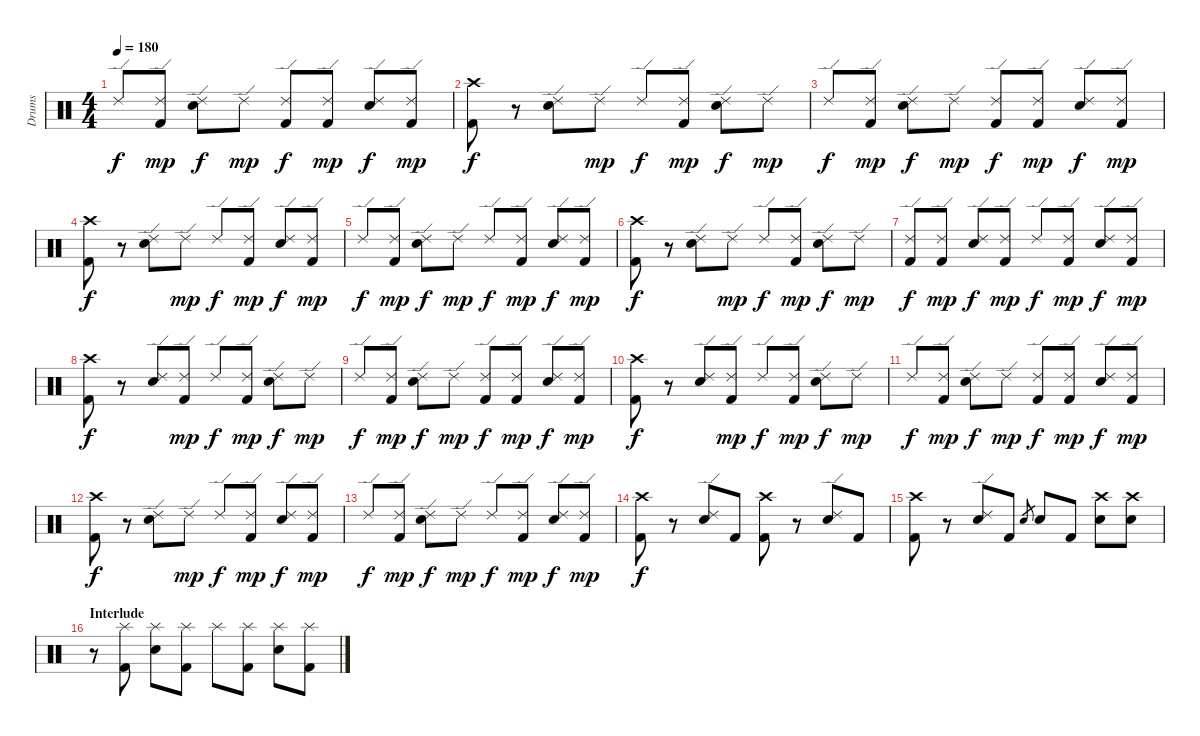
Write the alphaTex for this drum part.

\track ("Drums" "Drums") {instrument percussion}
\staff {score}
\articulation defaults
\ts (4 4)
\tempo 180
\clef neutral
\ks c "Ride (edge) 2".8{dy f}
("Ride (edge) 2" "Kick (hit) 2").8{dy mp} ("Ride (edge) 2" "Electric Snare (hit)").8{dy f} "Ride (edge) 2".8{dy mp} ("Ride (edge) 2" "Kick (hit) 2").8{dy f} ("Ride (edge) 2" "Kick (hit) 2").8{dy mp} ("Ride (edge) 2" "Electric Snare (hit)").8{dy f} ("Ride (edge) 2" "Kick (hit) 2").8{dy mp} |
("Crash high (hit)" "Kick (hit) 2").8{dy f} r.8 ("Ride (edge) 2" "Electric Snare (hit)").8 "Ride (edge) 2".8{dy mp} "Ride (edge) 2".8{dy f} ("Ride (edge) 2" "Kick (hit) 2").8{dy mp} ("Ride (edge) 2" "Electric Snare (hit)").8{dy f} "Ride (edge) 2".8{dy mp} |
"Ride (edge) 2".8{dy f} ("Ride (edge) 2" "Kick (hit) 2").8{dy mp} ("Ride (edge) 2" "Electric Snare (hit)").8{dy f} "Ride (edge) 2".8{dy mp} ("Ride (edge) 2" "Kick (hit) 2").8{dy f} ("Ride (edge) 2" "Kick (hit) 2").8{dy mp} ("Ride (edge) 2" "Electric Snare (hit)").8{dy f} ("Ride (edge) 2" "Kick (hit) 2").8{dy mp} |
("Crash high (hit)" "Kick (hit) 2").8{dy f} r.8 ("Ride (edge) 2" "Electric Snare (hit)").8 "Ride (edge) 2".8{dy mp} "Ride (edge) 2".8{dy f} ("Ride (edge) 2" "Kick (hit) 2").8{dy mp} ("Ride (edge) 2" "Electric Snare (hit)").8{dy f} ("Ride (edge) 2" "Kick (hit) 2").8{dy mp} |
"Ride (edge) 2".8{dy f} ("Ride (edge) 2" "Kick (hit) 2").8{dy mp} ("Ride (edge) 2" "Electric Snare (hit)").8{dy f} "Ride (edge) 2".8{dy mp} "Ride (edge) 2".8{dy f} ("Ride (edge) 2" "Kick (hit) 2").8{dy mp} ("Ride (edge) 2" "Electric Snare (hit)").8{dy f} ("Ride (edge) 2" "Kick (hit) 2").8{dy mp} |
("Crash high (hit)" "Kick (hit) 2").8{dy f} r.8 ("Ride (edge) 2" "Electric Snare (hit)").8 "Ride (edge) 2".8{dy mp} "Ride (edge) 2".8{dy f} ("Ride (edge) 2" "Kick (hit) 2").8{dy mp} ("Ride (edge) 2" "Electric Snare (hit)").8{dy f} "Ride (edge) 2".8{dy mp} |
("Ride (edge) 2" "Kick (hit) 2").8{dy f} ("Ride (edge) 2" "Kick (hit) 2").8{dy mp} ("Ride (edge) 2" "Electric Snare (hit)").8{dy f} ("Ride (edge) 2" "Kick (hit) 2").8{dy mp} "Ride (edge) 2".8{dy f} ("Ride (edge) 2" "Kick (hit) 2").8{dy mp} ("Ride (edge) 2" "Electric Snare (hit)").8{dy f} ("Ride (edge) 2" "Kick (hit) 2").8{dy mp} |
("Crash high (hit)" "Kick (hit) 2").8{dy f} r.8 ("Ride (edge) 2" "Electric Snare (hit)").8 ("Ride (edge) 2" "Kick (hit) 2").8{dy mp} "Ride (edge) 2".8{dy f} ("Ride (edge) 2" "Kick (hit) 2").8{dy mp} ("Ride (edge) 2" "Electric Snare (hit)").8{dy f} "Ride (edge) 2".8{dy mp} |
"Ride (edge) 2".8{dy f} ("Ride (edge) 2" "Kick (hit) 2").8{dy mp} ("Ride (edge) 2" "Electric Snare (hit)").8{dy f} "Ride (edge) 2".8{dy mp} ("Ride (edge) 2" "Kick (hit) 2").8{dy f} ("Ride (edge) 2" "Kick (hit) 2").8{dy mp} ("Ride (edge) 2" "Electric Snare (hit)").8{dy f} ("Ride (edge) 2" "Kick (hit) 2").8{dy mp} |
("Crash high (hit)" "Kick (hit) 2").8{dy f} r.8 ("Ride (edge) 2" "Electric Snare (hit)").8 ("Ride (edge) 2" "Kick (hit) 2").8{dy mp} "Ride (edge) 2".8{dy f} ("Ride (edge) 2" "Kick (hit) 2").8{dy mp} ("Ride (edge) 2" "Electric Snare (hit)").8{dy f} "Ride (edge) 2".8{dy mp} |
"Ride (edge) 2".8{dy f} ("Ride (edge) 2" "Kick (hit) 2").8{dy mp} ("Ride (edge) 2" "Electric Snare (hit)").8{dy f} "Ride (edge) 2".8{dy mp} ("Ride (edge) 2" "Kick (hit) 2").8{dy f} ("Ride (edge) 2" "Kick (hit) 2").8{dy mp} ("Ride (edge) 2" "Electric Snare (hit)").8{dy f} ("Ride (edge) 2" "Kick (hit) 2").8{dy mp} |
("Crash high (hit)" "Kick (hit) 2").8{dy f} r.8 ("Ride (edge) 2" "Electric Snare (hit)").8 "Ride (edge) 2".8{dy mp} "Ride (edge) 2".8{dy f} ("Ride (edge) 2" "Kick (hit) 2").8{dy mp} ("Ride (edge) 2" "Electric Snare (hit)").8{dy f} ("Ride (edge) 2" "Kick (hit) 2").8{dy mp} |
"Ride (edge) 2".8{dy f} ("Ride (edge) 2" "Kick (hit) 2").8{dy mp} ("Ride (edge) 2" "Electric Snare (hit)").8{dy f} "Ride (edge) 2".8{dy mp} "Ride (edge) 2".8{dy f} ("Ride (edge) 2" "Kick (hit) 2").8{dy mp} ("Ride (edge) 2" "Electric Snare (hit)").8{dy f} ("Ride (edge) 2" "Kick (hit) 2").8{dy mp} |
("Crash high (hit)" "Kick (hit) 2").8{dy f} r.8 ("Ride (edge) 2" "Electric Snare (hit)").8 "Kick (hit) 2".8 ("Crash high (hit)" "Kick (hit) 2").8 r.8 ("Ride (edge) 2" "Electric Snare (hit)").8 "Kick (hit) 2".8 |
("Crash high (hit)" "Kick (hit) 2").8 r.8 ("Ride (edge) 2" "Electric Snare (hit)").8 "Kick (hit) 2".8 "Electric Snare (hit)".8{gr} "Electric Snare (hit)".8 "Kick (hit) 2".8 ("Crash high (hit)" "Electric Snare (hit)").8 ("Crash high (hit)" "Electric Snare (hit)").8 |
\section ("" "Interlude")
r.8 ("Splash (hit)" "Kick (hit) 2").8 ("Splash (hit)" "Electric Snare (hit)").8 ("Splash (hit)" "Kick (hit) 2").8 "Splash (hit)".8 ("Splash (hit)" "Kick (hit) 2").8 ("Splash (hit)" "Electric Snare (hit)").8 ("Splash (hit)" "Kick (hit) 2").8
